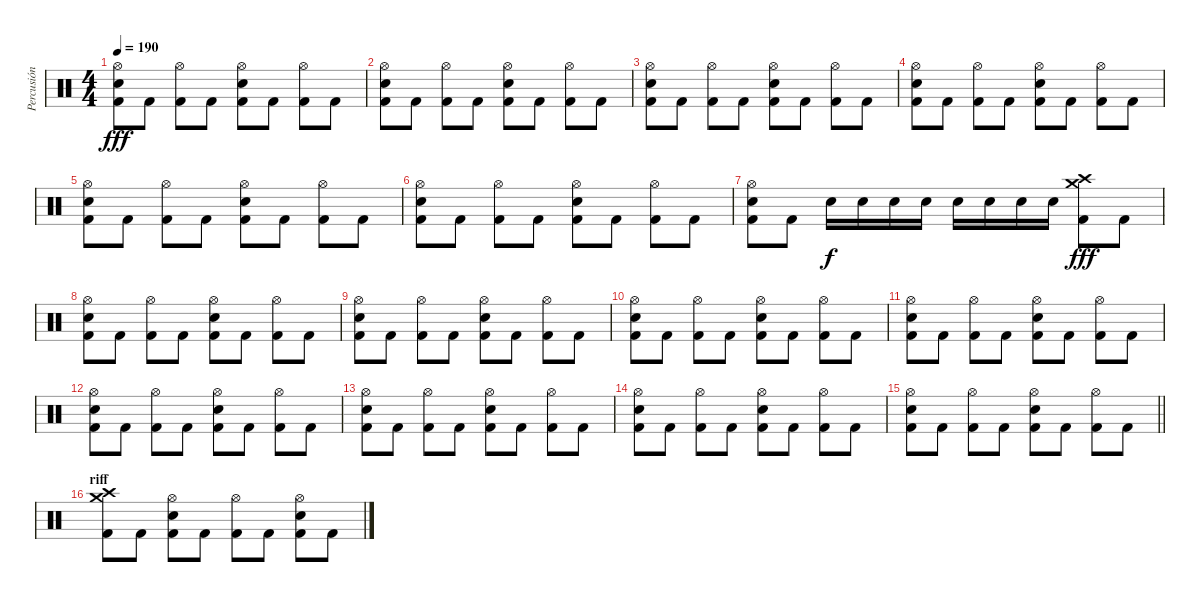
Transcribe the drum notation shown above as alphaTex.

\track ("Percusión" "Percusión") {instrument percussion}
\staff {score}
\articulation defaults
\ts (4 4)
\tempo 190
\clef neutral
\ks c
("Hi-Hat (open)" "Electric Snare (hit)" "Kick (hit) 2").8{dy fff} "Kick (hit) 2".8 ("Hi-Hat (open)" "Kick (hit) 2").8 "Kick (hit) 2".8 ("Hi-Hat (open)" "Electric Snare (hit)" "Kick (hit) 2").8 "Kick (hit) 2".8 ("Hi-Hat (open)" "Kick (hit) 2").8 "Kick (hit) 2".8 |
("Hi-Hat (open)" "Electric Snare (hit)" "Kick (hit) 2").8 "Kick (hit) 2".8 ("Hi-Hat (open)" "Kick (hit) 2").8 "Kick (hit) 2".8 ("Hi-Hat (open)" "Electric Snare (hit)" "Kick (hit) 2").8 "Kick (hit) 2".8 ("Hi-Hat (open)" "Kick (hit) 2").8 "Kick (hit) 2".8 |
("Hi-Hat (open)" "Electric Snare (hit)" "Kick (hit) 2").8 "Kick (hit) 2".8 ("Hi-Hat (open)" "Kick (hit) 2").8 "Kick (hit) 2".8 ("Hi-Hat (open)" "Electric Snare (hit)" "Kick (hit) 2").8 "Kick (hit) 2".8 ("Hi-Hat (open)" "Kick (hit) 2").8 "Kick (hit) 2".8 |
("Hi-Hat (open)" "Electric Snare (hit)" "Kick (hit) 2").8 "Kick (hit) 2".8 ("Hi-Hat (open)" "Kick (hit) 2").8 "Kick (hit) 2".8 ("Hi-Hat (open)" "Electric Snare (hit)" "Kick (hit) 2").8 "Kick (hit) 2".8 ("Hi-Hat (open)" "Kick (hit) 2").8 "Kick (hit) 2".8 |
("Hi-Hat (open)" "Electric Snare (hit)" "Kick (hit) 2").8 "Kick (hit) 2".8 ("Hi-Hat (open)" "Kick (hit) 2").8 "Kick (hit) 2".8 ("Hi-Hat (open)" "Electric Snare (hit)" "Kick (hit) 2").8 "Kick (hit) 2".8 ("Hi-Hat (open)" "Kick (hit) 2").8 "Kick (hit) 2".8 |
("Hi-Hat (open)" "Electric Snare (hit)" "Kick (hit) 2").8 "Kick (hit) 2".8 ("Hi-Hat (open)" "Kick (hit) 2").8 "Kick (hit) 2".8 ("Hi-Hat (open)" "Electric Snare (hit)" "Kick (hit) 2").8 "Kick (hit) 2".8 ("Hi-Hat (open)" "Kick (hit) 2").8 "Kick (hit) 2".8 |
("Hi-Hat (open)" "Electric Snare (hit)" "Kick (hit) 2").8 "Kick (hit) 2".8 "Snare (hit) 2".16{dy f} "Snare (hit) 2".16 "Snare (hit) 2".16 "Snare (hit) 2".16 "Snare (hit) 2".16 "Snare (hit) 2".16 "Snare (hit) 2".16 "Snare (hit) 2".16 ("Crash high (hit)" "Crash medium (hit)" "Kick (hit) 2").8{dy fff} "Kick (hit) 2".8 |
("Hi-Hat (open)" "Electric Snare (hit)" "Kick (hit) 2").8 "Kick (hit) 2".8 ("Hi-Hat (open)" "Kick (hit) 2").8 "Kick (hit) 2".8 ("Hi-Hat (open)" "Electric Snare (hit)" "Kick (hit) 2").8 "Kick (hit) 2".8 ("Hi-Hat (open)" "Kick (hit) 2").8 "Kick (hit) 2".8 |
("Hi-Hat (open)" "Electric Snare (hit)" "Kick (hit) 2").8 "Kick (hit) 2".8 ("Hi-Hat (open)" "Kick (hit) 2").8 "Kick (hit) 2".8 ("Hi-Hat (open)" "Electric Snare (hit)" "Kick (hit) 2").8 "Kick (hit) 2".8 ("Hi-Hat (open)" "Kick (hit) 2").8 "Kick (hit) 2".8 |
("Hi-Hat (open)" "Electric Snare (hit)" "Kick (hit) 2").8 "Kick (hit) 2".8 ("Hi-Hat (open)" "Kick (hit) 2").8 "Kick (hit) 2".8 ("Hi-Hat (open)" "Electric Snare (hit)" "Kick (hit) 2").8 "Kick (hit) 2".8 ("Hi-Hat (open)" "Kick (hit) 2").8 "Kick (hit) 2".8 |
("Hi-Hat (open)" "Electric Snare (hit)" "Kick (hit) 2").8 "Kick (hit) 2".8 ("Hi-Hat (open)" "Kick (hit) 2").8 "Kick (hit) 2".8 ("Hi-Hat (open)" "Electric Snare (hit)" "Kick (hit) 2").8 "Kick (hit) 2".8 ("Hi-Hat (open)" "Kick (hit) 2").8 "Kick (hit) 2".8 |
("Hi-Hat (open)" "Electric Snare (hit)" "Kick (hit) 2").8 "Kick (hit) 2".8 ("Hi-Hat (open)" "Kick (hit) 2").8 "Kick (hit) 2".8 ("Hi-Hat (open)" "Electric Snare (hit)" "Kick (hit) 2").8 "Kick (hit) 2".8 ("Hi-Hat (open)" "Kick (hit) 2").8 "Kick (hit) 2".8 |
("Hi-Hat (open)" "Electric Snare (hit)" "Kick (hit) 2").8 "Kick (hit) 2".8 ("Hi-Hat (open)" "Kick (hit) 2").8 "Kick (hit) 2".8 ("Hi-Hat (open)" "Electric Snare (hit)" "Kick (hit) 2").8 "Kick (hit) 2".8 ("Hi-Hat (open)" "Kick (hit) 2").8 "Kick (hit) 2".8 |
("Hi-Hat (open)" "Electric Snare (hit)" "Kick (hit) 2").8 "Kick (hit) 2".8 ("Hi-Hat (open)" "Kick (hit) 2").8 "Kick (hit) 2".8 ("Hi-Hat (open)" "Electric Snare (hit)" "Kick (hit) 2").8 "Kick (hit) 2".8 ("Hi-Hat (open)" "Kick (hit) 2").8 "Kick (hit) 2".8 |
\barLineRight lightlight
("Hi-Hat (open)" "Electric Snare (hit)" "Kick (hit) 2").8 "Kick (hit) 2".8 ("Hi-Hat (open)" "Kick (hit) 2").8 "Kick (hit) 2".8 ("Hi-Hat (open)" "Electric Snare (hit)" "Kick (hit) 2").8 "Kick (hit) 2".8 ("Hi-Hat (open)" "Kick (hit) 2").8 "Kick (hit) 2".8 |
\section ("" "riff")
("Crash high (hit)" "Crash medium (hit)" "Kick (hit) 2").8 "Kick (hit) 2".8 ("Hi-Hat (open)" "Electric Snare (hit)" "Kick (hit) 2").8 "Kick (hit) 2".8 ("Hi-Hat (open)" "Kick (hit) 2").8 "Kick (hit) 2".8 ("Hi-Hat (open)" "Electric Snare (hit)" "Kick (hit) 2").8 "Kick (hit) 2".8
